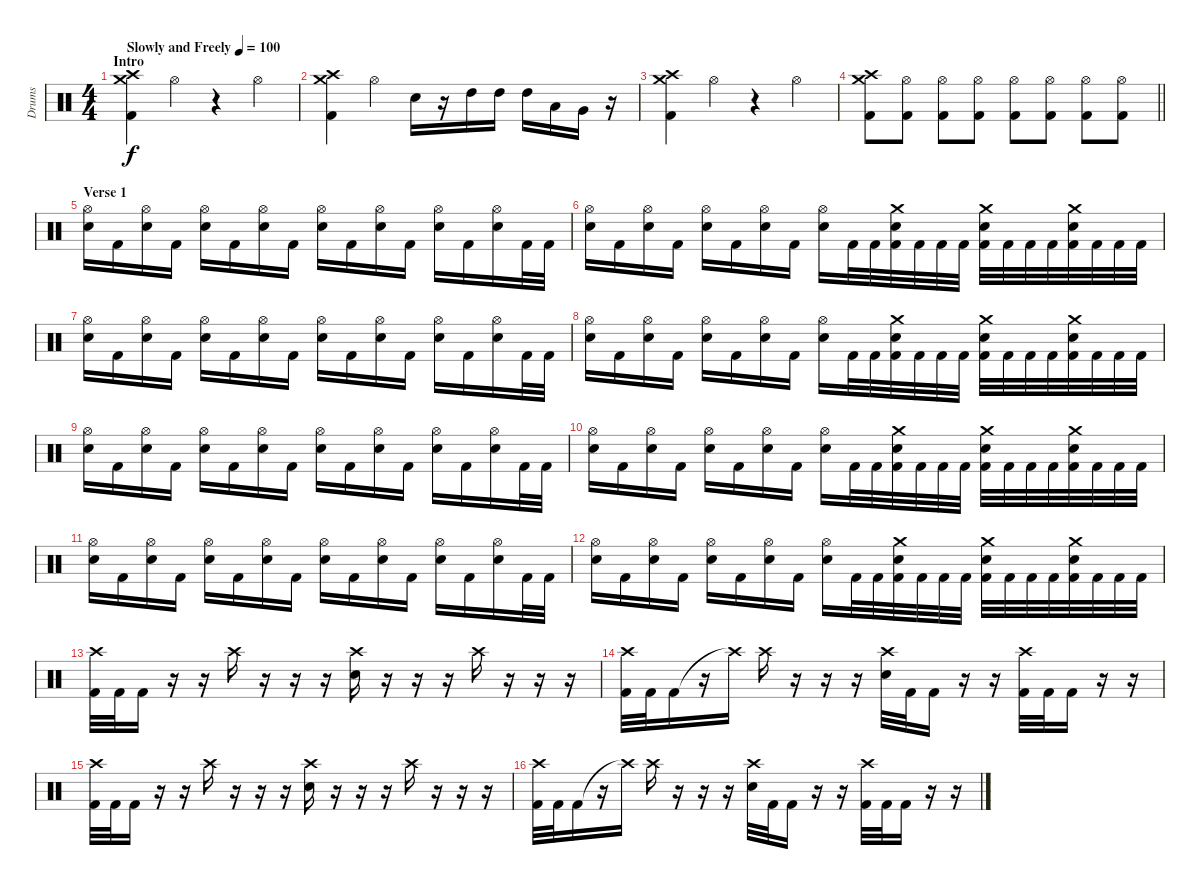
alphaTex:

\track ("Drums" "Drums") {instrument percussion}
\staff {score}
\articulation defaults
\ts (4 4)
\section ("" "Intro")
\tempo (100 "Slowly and Freely")
\clef neutral
\ks c
("Crash medium (hit)" "Crash high (hit)" "Kick (hit) 2").4{dy f} "Hi-Hat (open)".4 r.4 "Hi-Hat (open)".4 |
("Crash medium (hit)" "Crash high (hit)" "Kick (hit) 2").4 "Hi-Hat (open)".4 "Snare (hit) 2".16 r.16 "High Tom (hit)".16 "High Tom (hit)".16 "High Tom (hit)".16 "Low Tom (hit)".16 "Very Low Tom (hit)".16 r.16 |
("Crash medium (hit)" "Crash high (hit)" "Kick (hit) 2").4 "Hi-Hat (open)".4 r.4 "Hi-Hat (open)".4 |
\barLineRight lightlight
("Crash medium (hit)" "Crash high (hit)" "Kick (hit) 2").8 ("Hi-Hat (open)" "Kick (hit) 2").8 ("Hi-Hat (open)" "Kick (hit) 2").8 ("Hi-Hat (open)" "Kick (hit) 2").8 ("Hi-Hat (open)" "Kick (hit) 2").8 ("Hi-Hat (open)" "Kick (hit) 2").8 ("Hi-Hat (open)" "Kick (hit) 2").8 ("Hi-Hat (open)" "Kick (hit) 2").8 |
\section ("" "Verse 1")
("Hi-Hat (open)" "Snare (hit) 2").16 "Kick (hit) 2".16 ("Hi-Hat (open)" "Snare (hit) 2").16 "Kick (hit) 2".16 ("Hi-Hat (open)" "Snare (hit) 2").16 "Kick (hit) 2".16 ("Hi-Hat (open)" "Snare (hit) 2").16 "Kick (hit) 2".16 ("Hi-Hat (open)" "Snare (hit) 2").16 "Kick (hit) 2".16 ("Hi-Hat (open)" "Snare (hit) 2").16 "Kick (hit) 2".16 ("Hi-Hat (open)" "Snare (hit) 2").16 "Kick (hit) 2".16 ("Hi-Hat (open)" "Snare (hit) 2").16 "Kick (hit) 2".32 "Kick (hit) 2".32 |
("Hi-Hat (open)" "Snare (hit) 2").16 "Kick (hit) 2".16 ("Hi-Hat (open)" "Snare (hit) 2").16 "Kick (hit) 2".16 ("Hi-Hat (open)" "Snare (hit) 2").16 "Kick (hit) 2".16 ("Hi-Hat (open)" "Snare (hit) 2").16 "Kick (hit) 2".16 ("Hi-Hat (open)" "Snare (hit) 2").16 "Kick (hit) 2".32 "Kick (hit) 2".32 ("Crash medium (hit)" "Snare (hit) 2" "Kick (hit) 2").32 "Kick (hit) 2".32 "Kick (hit) 2".32 "Kick (hit) 2".32 ("Crash medium (hit)" "Snare (hit) 2" "Kick (hit) 2").32 "Kick (hit) 2".32 "Kick (hit) 2".32 "Kick (hit) 2".32 ("Crash medium (hit)" "Snare (hit) 2" "Kick (hit) 2").32 "Kick (hit) 2".32 "Kick (hit) 2".32 "Kick (hit) 2".32 |
("Hi-Hat (open)" "Snare (hit) 2").16 "Kick (hit) 2".16 ("Hi-Hat (open)" "Snare (hit) 2").16 "Kick (hit) 2".16 ("Hi-Hat (open)" "Snare (hit) 2").16 "Kick (hit) 2".16 ("Hi-Hat (open)" "Snare (hit) 2").16 "Kick (hit) 2".16 ("Hi-Hat (open)" "Snare (hit) 2").16 "Kick (hit) 2".16 ("Hi-Hat (open)" "Snare (hit) 2").16 "Kick (hit) 2".16 ("Hi-Hat (open)" "Snare (hit) 2").16 "Kick (hit) 2".16 ("Hi-Hat (open)" "Snare (hit) 2").16 "Kick (hit) 2".32 "Kick (hit) 2".32 |
("Hi-Hat (open)" "Snare (hit) 2").16 "Kick (hit) 2".16 ("Hi-Hat (open)" "Snare (hit) 2").16 "Kick (hit) 2".16 ("Hi-Hat (open)" "Snare (hit) 2").16 "Kick (hit) 2".16 ("Hi-Hat (open)" "Snare (hit) 2").16 "Kick (hit) 2".16 ("Hi-Hat (open)" "Snare (hit) 2").16 "Kick (hit) 2".32 "Kick (hit) 2".32 ("Crash medium (hit)" "Snare (hit) 2" "Kick (hit) 2").32 "Kick (hit) 2".32 "Kick (hit) 2".32 "Kick (hit) 2".32 ("Crash medium (hit)" "Snare (hit) 2" "Kick (hit) 2").32 "Kick (hit) 2".32 "Kick (hit) 2".32 "Kick (hit) 2".32 ("Crash medium (hit)" "Snare (hit) 2" "Kick (hit) 2").32 "Kick (hit) 2".32 "Kick (hit) 2".32 "Kick (hit) 2".32 |
("Hi-Hat (open)" "Snare (hit) 2").16 "Kick (hit) 2".16 ("Hi-Hat (open)" "Snare (hit) 2").16 "Kick (hit) 2".16 ("Hi-Hat (open)" "Snare (hit) 2").16 "Kick (hit) 2".16 ("Hi-Hat (open)" "Snare (hit) 2").16 "Kick (hit) 2".16 ("Hi-Hat (open)" "Snare (hit) 2").16 "Kick (hit) 2".16 ("Hi-Hat (open)" "Snare (hit) 2").16 "Kick (hit) 2".16 ("Hi-Hat (open)" "Snare (hit) 2").16 "Kick (hit) 2".16 ("Hi-Hat (open)" "Snare (hit) 2").16 "Kick (hit) 2".32 "Kick (hit) 2".32 |
("Hi-Hat (open)" "Snare (hit) 2").16 "Kick (hit) 2".16 ("Hi-Hat (open)" "Snare (hit) 2").16 "Kick (hit) 2".16 ("Hi-Hat (open)" "Snare (hit) 2").16 "Kick (hit) 2".16 ("Hi-Hat (open)" "Snare (hit) 2").16 "Kick (hit) 2".16 ("Hi-Hat (open)" "Snare (hit) 2").16 "Kick (hit) 2".32 "Kick (hit) 2".32 ("Crash medium (hit)" "Snare (hit) 2" "Kick (hit) 2").32 "Kick (hit) 2".32 "Kick (hit) 2".32 "Kick (hit) 2".32 ("Crash medium (hit)" "Snare (hit) 2" "Kick (hit) 2").32 "Kick (hit) 2".32 "Kick (hit) 2".32 "Kick (hit) 2".32 ("Crash medium (hit)" "Snare (hit) 2" "Kick (hit) 2").32 "Kick (hit) 2".32 "Kick (hit) 2".32 "Kick (hit) 2".32 |
("Hi-Hat (open)" "Snare (hit) 2").16 "Kick (hit) 2".16 ("Hi-Hat (open)" "Snare (hit) 2").16 "Kick (hit) 2".16 ("Hi-Hat (open)" "Snare (hit) 2").16 "Kick (hit) 2".16 ("Hi-Hat (open)" "Snare (hit) 2").16 "Kick (hit) 2".16 ("Hi-Hat (open)" "Snare (hit) 2").16 "Kick (hit) 2".16 ("Hi-Hat (open)" "Snare (hit) 2").16 "Kick (hit) 2".16 ("Hi-Hat (open)" "Snare (hit) 2").16 "Kick (hit) 2".16 ("Hi-Hat (open)" "Snare (hit) 2").16 "Kick (hit) 2".32 "Kick (hit) 2".32 |
("Hi-Hat (open)" "Snare (hit) 2").16 "Kick (hit) 2".16 ("Hi-Hat (open)" "Snare (hit) 2").16 "Kick (hit) 2".16 ("Hi-Hat (open)" "Snare (hit) 2").16 "Kick (hit) 2".16 ("Hi-Hat (open)" "Snare (hit) 2").16 "Kick (hit) 2".16 ("Hi-Hat (open)" "Snare (hit) 2").16 "Kick (hit) 2".32 "Kick (hit) 2".32 ("Crash medium (hit)" "Snare (hit) 2" "Kick (hit) 2").32 "Kick (hit) 2".32 "Kick (hit) 2".32 "Kick (hit) 2".32 ("Crash medium (hit)" "Snare (hit) 2" "Kick (hit) 2").32 "Kick (hit) 2".32 "Kick (hit) 2".32 "Kick (hit) 2".32 ("Crash medium (hit)" "Snare (hit) 2" "Kick (hit) 2").32 "Kick (hit) 2".32 "Kick (hit) 2".32 "Kick (hit) 2".32 |
("Crash high (hit)" "Kick (hit) 2").32 "Kick (hit) 2".32 "Kick (hit) 2".16 r.16 r.16 "Crash high (hit)".16 r.16 r.16 r.16 ("Crash high (hit)" "Snare (hit) 2").16 r.16 r.16 r.16 "Crash high (hit)".16 r.16 r.16 r.16 |
("Crash high (hit)" "Kick (hit) 2").32 "Kick (hit) 2".32 "Kick (hit) 2".16 r.16 "Crash high (hit)"{t}.16 "Crash high (hit)".16 r.16 r.16 r.16 ("Crash high (hit)" "Snare (hit) 2").32 "Kick (hit) 2".32 "Kick (hit) 2".16 r.16 r.16 ("Crash high (hit)" "Kick (hit) 2").32 "Kick (hit) 2".32 "Kick (hit) 2".16 r.16 r.16 |
("Crash high (hit)" "Kick (hit) 2").32 "Kick (hit) 2".32 "Kick (hit) 2".16 r.16 r.16 "Crash high (hit)".16 r.16 r.16 r.16 ("Crash high (hit)" "Snare (hit) 2").16 r.16 r.16 r.16 "Crash high (hit)".16 r.16 r.16 r.16 |
("Crash high (hit)" "Kick (hit) 2").32 "Kick (hit) 2".32 "Kick (hit) 2".16 r.16 "Crash high (hit)"{t}.16 "Crash high (hit)".16 r.16 r.16 r.16 ("Crash high (hit)" "Snare (hit) 2").32 "Kick (hit) 2".32 "Kick (hit) 2".16 r.16 r.16 ("Crash high (hit)" "Kick (hit) 2").32 "Kick (hit) 2".32 "Kick (hit) 2".16 r.16 r.16
